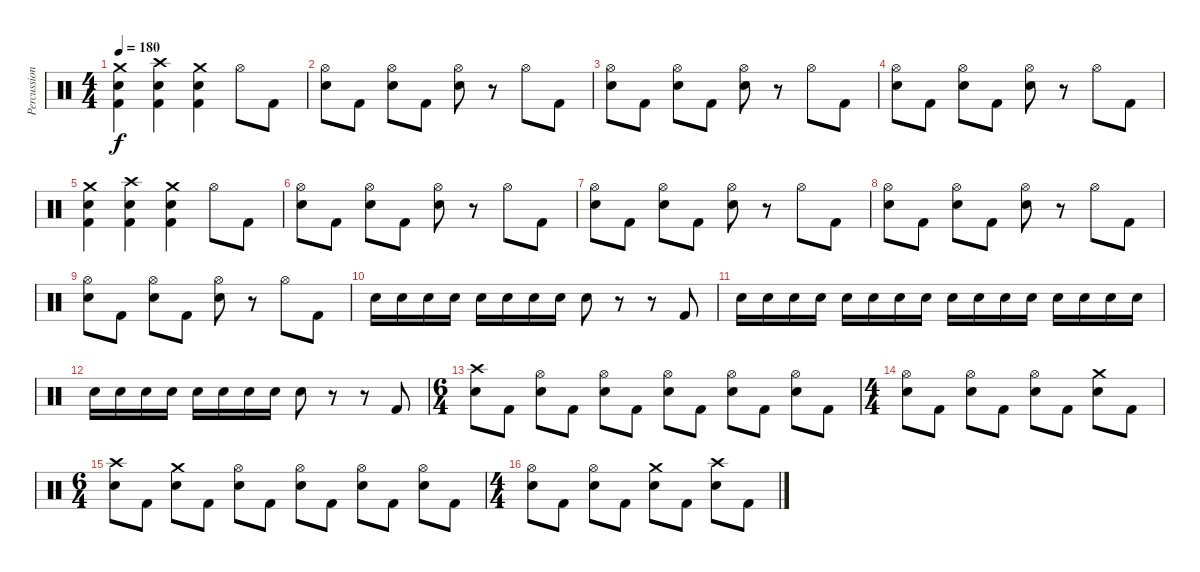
\track ("Percussion" "Percussion") {instrument percussion}
\staff {score}
\articulation defaults
\ts (4 4)
\tempo 180
\clef neutral
\ks c
("Crash medium (hit)" "Snare (hit) 2" "Kick (hit) 2").4{dy f} ("Crash high (hit)" "Snare (hit) 2" "Kick (hit) 2").4 ("Crash medium (hit)" "Snare (hit) 2" "Kick (hit) 2").4 "Hi-Hat (open)".8 "Kick (hit) 2".8 |
("Hi-Hat (open)" "Snare (hit) 2").8 "Kick (hit) 2".8 ("Hi-Hat (open)" "Snare (hit) 2").8 "Kick (hit) 2".8 ("Hi-Hat (open)" "Snare (hit) 2").8 r.8 "Hi-Hat (open)".8 "Kick (hit) 2".8 |
("Hi-Hat (open)" "Snare (hit) 2").8 "Kick (hit) 2".8 ("Hi-Hat (open)" "Snare (hit) 2").8 "Kick (hit) 2".8 ("Hi-Hat (open)" "Snare (hit) 2").8 r.8 "Hi-Hat (open)".8 "Kick (hit) 2".8 |
("Hi-Hat (open)" "Snare (hit) 2").8 "Kick (hit) 2".8 ("Hi-Hat (open)" "Snare (hit) 2").8 "Kick (hit) 2".8 ("Hi-Hat (open)" "Snare (hit) 2").8 r.8 "Hi-Hat (open)".8 "Kick (hit) 2".8 |
("Crash medium (hit)" "Snare (hit) 2" "Kick (hit) 2").4 ("Crash high (hit)" "Snare (hit) 2" "Kick (hit) 2").4 ("Crash medium (hit)" "Snare (hit) 2" "Kick (hit) 2").4 "Hi-Hat (open)".8 "Kick (hit) 2".8 |
("Hi-Hat (open)" "Snare (hit) 2").8 "Kick (hit) 2".8 ("Hi-Hat (open)" "Snare (hit) 2").8 "Kick (hit) 2".8 ("Hi-Hat (open)" "Snare (hit) 2").8 r.8 "Hi-Hat (open)".8 "Kick (hit) 2".8 |
("Hi-Hat (open)" "Snare (hit) 2").8 "Kick (hit) 2".8 ("Hi-Hat (open)" "Snare (hit) 2").8 "Kick (hit) 2".8 ("Hi-Hat (open)" "Snare (hit) 2").8 r.8 "Hi-Hat (open)".8 "Kick (hit) 2".8 |
("Hi-Hat (open)" "Snare (hit) 2").8 "Kick (hit) 2".8 ("Hi-Hat (open)" "Snare (hit) 2").8 "Kick (hit) 2".8 ("Hi-Hat (open)" "Snare (hit) 2").8 r.8 "Hi-Hat (open)".8 "Kick (hit) 2".8 |
("Hi-Hat (open)" "Snare (hit) 2").8 "Kick (hit) 2".8 ("Hi-Hat (open)" "Snare (hit) 2").8 "Kick (hit) 2".8 ("Hi-Hat (open)" "Snare (hit) 2").8 r.8 "Hi-Hat (open)".8 "Kick (hit) 2".8 |
"Snare (hit) 2".16 "Snare (hit) 2".16 "Snare (hit) 2".16 "Snare (hit) 2".16 "Snare (hit) 2".16 "Snare (hit) 2".16 "Snare (hit) 2".16 "Snare (hit) 2".16 "Snare (hit) 2".8 r.8 r.8 "Kick (hit) 2".8 |
"Snare (hit) 2".16 "Snare (hit) 2".16 "Snare (hit) 2".16 "Snare (hit) 2".16 "Snare (hit) 2".16 "Snare (hit) 2".16 "Snare (hit) 2".16 "Snare (hit) 2".16 "Snare (hit) 2".16 "Snare (hit) 2".16 "Snare (hit) 2".16 "Snare (hit) 2".16 "Snare (hit) 2".16 "Snare (hit) 2".16 "Snare (hit) 2".16 "Snare (hit) 2".16 |
"Snare (hit) 2".16 "Snare (hit) 2".16 "Snare (hit) 2".16 "Snare (hit) 2".16 "Snare (hit) 2".16 "Snare (hit) 2".16 "Snare (hit) 2".16 "Snare (hit) 2".16 "Snare (hit) 2".8 r.8 r.8 "Kick (hit) 2".8 |
\ts (6 4)
("Crash high (hit)" "Snare (hit) 2").8 "Kick (hit) 2".8 ("Hi-Hat (open)" "Snare (hit) 2").8 "Kick (hit) 2".8 ("Hi-Hat (open)" "Snare (hit) 2").8 "Kick (hit) 2".8 ("Hi-Hat (open)" "Snare (hit) 2").8 "Kick (hit) 2".8 ("Hi-Hat (open)" "Snare (hit) 2").8 "Kick (hit) 2".8 ("Hi-Hat (open)" "Snare (hit) 2").8 "Kick (hit) 2".8 |
\ts (4 4)
("Hi-Hat (open)" "Snare (hit) 2").8 "Kick (hit) 2".8 ("Hi-Hat (open)" "Snare (hit) 2").8 "Kick (hit) 2".8 ("Hi-Hat (open)" "Snare (hit) 2").8 "Kick (hit) 2".8 ("Crash medium (hit)" "Snare (hit) 2").8 "Kick (hit) 2".8 |
\ts (6 4)
("Crash high (hit)" "Snare (hit) 2").8 "Kick (hit) 2".8 ("Crash medium (hit)" "Snare (hit) 2").8 "Kick (hit) 2".8 ("Hi-Hat (open)" "Snare (hit) 2").8 "Kick (hit) 2".8 ("Hi-Hat (open)" "Snare (hit) 2").8 "Kick (hit) 2".8 ("Hi-Hat (open)" "Snare (hit) 2").8 "Kick (hit) 2".8 ("Hi-Hat (open)" "Snare (hit) 2").8 "Kick (hit) 2".8 |
\ts (4 4)
("Hi-Hat (open)" "Snare (hit) 2").8 "Kick (hit) 2".8 ("Hi-Hat (open)" "Snare (hit) 2").8 "Kick (hit) 2".8 ("Crash medium (hit)" "Snare (hit) 2").8 "Kick (hit) 2".8 ("Crash high (hit)" "Snare (hit) 2").8 "Kick (hit) 2".8
